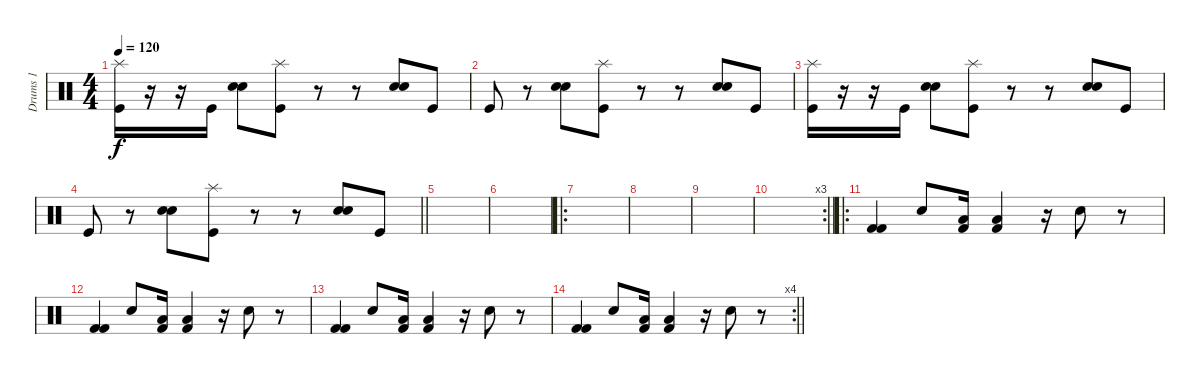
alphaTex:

\track ("Drums 1" "Drums 1") {instrument percussion}
\staff {score}
\articulation defaults
\ts (4 4)
\tempo 120
\clef neutral
\ks c
("Splash (hit)" "Kick (hit)").16{dy f} r.16 r.16 "Kick (hit)".16 ("Hand Clap (hit)" "Electric Snare (hit)").8 ("Splash (hit)" "Kick (hit)").8 r.8 r.8 ("Hand Clap (hit)" "Electric Snare (hit)").8 "Kick (hit)".8 |
"Kick (hit)".8 r.8 ("Hand Clap (hit)" "Electric Snare (hit)").8 ("Splash (hit)" "Kick (hit)").8 r.8 r.8 ("Hand Clap (hit)" "Electric Snare (hit)").8 "Kick (hit)".8 |
("Splash (hit)" "Kick (hit)").16 r.16 r.16 "Kick (hit)".16 ("Hand Clap (hit)" "Electric Snare (hit)").8 ("Splash (hit)" "Kick (hit)").8 r.8 r.8 ("Hand Clap (hit)" "Electric Snare (hit)").8 "Kick (hit)".8 |
\barLineRight lightlight "Kick (hit)".8
r.8 ("Hand Clap (hit)" "Electric Snare (hit)").8 ("Splash (hit)" "Kick (hit)").8 r.8 r.8 ("Hand Clap (hit)" "Electric Snare (hit)").8 "Kick (hit)".8 |
|
|
\ro
|
|
|
\rc 3
\barLineRight lightlight
|
\ro
("Kick (hit) 2" "Kick (hit) 2").4 "Electric Snare (hit)".8 ("Low Floor Tom (hit)" "Kick (hit) 2").16 ("Low Floor Tom (hit)" "Kick (hit) 2").4 r.16 "Electric Snare (hit)".8 r.8 |
("Kick (hit) 2" "Kick (hit) 2").4 "Electric Snare (hit)".8 ("Low Floor Tom (hit)" "Kick (hit) 2").16 ("Low Floor Tom (hit)" "Kick (hit) 2").4 r.16 "Electric Snare (hit)".8 r.8 |
("Kick (hit) 2" "Kick (hit) 2").4 "Electric Snare (hit)".8 ("Low Floor Tom (hit)" "Kick (hit) 2").16 ("Low Floor Tom (hit)" "Kick (hit) 2").4 r.16 "Electric Snare (hit)".8 r.8 |
\rc 4
\barLineRight lightlight
("Kick (hit) 2" "Kick (hit) 2").4 "Electric Snare (hit)".8 ("Low Floor Tom (hit)" "Kick (hit) 2").16 ("Low Floor Tom (hit)" "Kick (hit) 2").4 r.16 "Electric Snare (hit)".8 r.8
